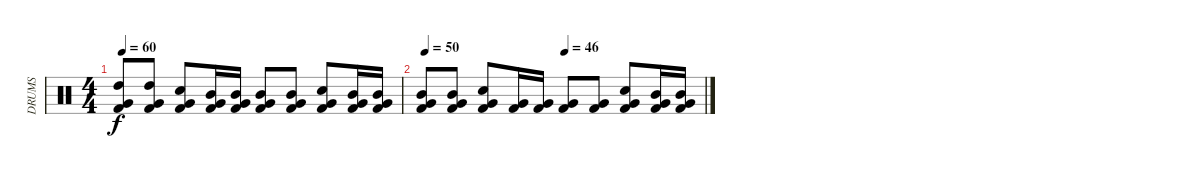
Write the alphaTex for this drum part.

\track ("DRUMS" "DRUMS") {instrument percussion}
\staff {score}
\articulation defaults
\ts (4 4)
\tempo 60
\clef neutral
\ks c
("High Tom (hit)" "Very Low Tom (hit)" "Kick (hit) 2").8{dy f} ("High Tom (hit)" "Very Low Tom (hit)" "Kick (hit) 2").8 ("Electric Snare (hit)" "Very Low Tom (hit)" "Kick (hit) 2").8 ("Mid Tom (hit)" "Very Low Tom (hit)" "Kick (hit) 2").16 ("Mid Tom (hit)" "Very Low Tom (hit)" "Kick (hit) 2").16 ("Mid Tom (hit)" "Very Low Tom (hit)" "Kick (hit) 2").8 ("Mid Tom (hit)" "Very Low Tom (hit)" "Kick (hit) 2").8 ("Electric Snare (hit)" "Very Low Tom (hit)" "Kick (hit) 2").8 ("Mid Tom (hit)" "Very Low Tom (hit)" "Kick (hit) 2").16 ("Mid Tom (hit)" "Very Low Tom (hit)" "Kick (hit) 2").16 |
\tempo 50
\tempo (46 0.5)
("Mid Tom (hit)" "Very Low Tom (hit)" "Kick (hit) 2").8 ("Mid Tom (hit)" "Very Low Tom (hit)" "Kick (hit) 2").8 ("Electric Snare (hit)" "Very Low Tom (hit)" "Kick (hit) 2").8 ("Very Low Tom (hit)" "Kick (hit) 2").16 ("Very Low Tom (hit)" "Kick (hit) 2").16 ("Very Low Tom (hit)" "Kick (hit) 2").8 ("Very Low Tom (hit)" "Kick (hit) 2").8 ("Electric Snare (hit)" "Very Low Tom (hit)" "Kick (hit) 2").8 ("Mid Tom (hit)" "Very Low Tom (hit)" "Kick (hit) 2").16 ("Mid Tom (hit)" "Very Low Tom (hit)" "Kick (hit) 2").16
